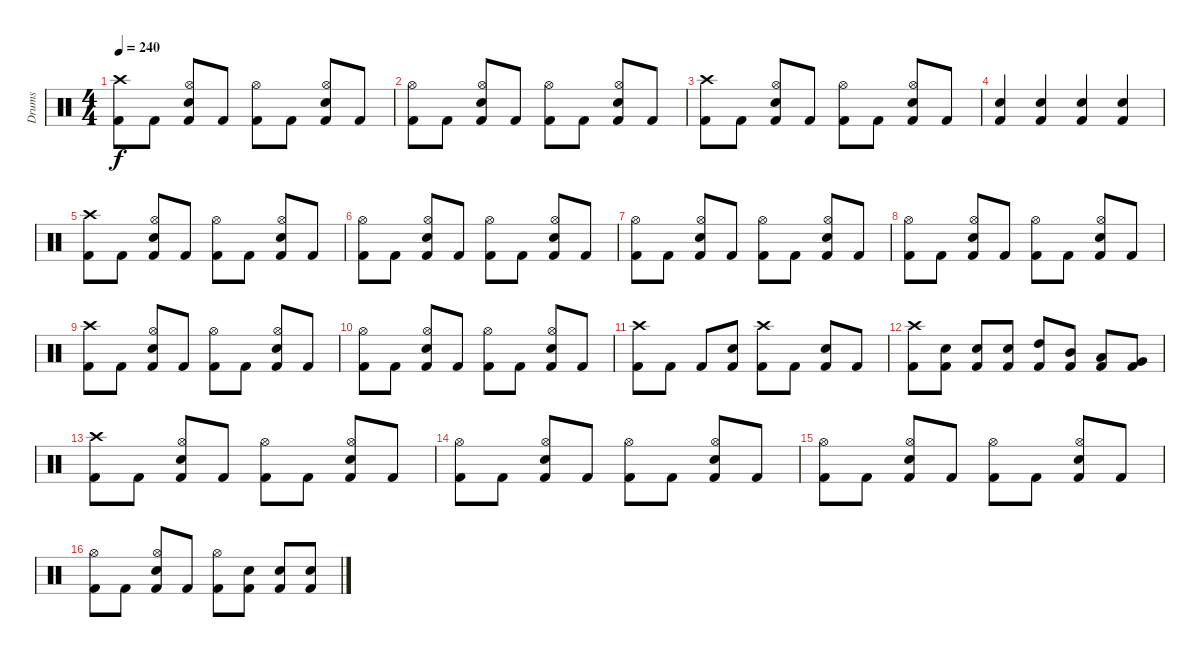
\track ("Drums" "Drums") {instrument percussion}
\staff {score}
\articulation defaults
\ts (4 4)
\tempo 240
\clef neutral
\ks c
("Crash high (hit)" "Kick (hit) 2").8{dy f} "Kick (hit) 2".8 ("Hi-Hat (open)" "Snare (hit) 2" "Kick (hit) 2").8 "Kick (hit) 2".8 ("Hi-Hat (open)" "Kick (hit) 2").8 "Kick (hit) 2".8 ("Hi-Hat (open)" "Snare (hit) 2" "Kick (hit) 2").8 "Kick (hit) 2".8 |
("Hi-Hat (open)" "Kick (hit) 2").8 "Kick (hit) 2".8 ("Hi-Hat (open)" "Snare (hit) 2" "Kick (hit) 2").8 "Kick (hit) 2".8 ("Hi-Hat (open)" "Kick (hit) 2").8 "Kick (hit) 2".8 ("Hi-Hat (open)" "Snare (hit) 2" "Kick (hit) 2").8 "Kick (hit) 2".8 |
("Crash high (hit)" "Kick (hit) 2").8 "Kick (hit) 2".8 ("Hi-Hat (open)" "Snare (hit) 2" "Kick (hit) 2").8 "Kick (hit) 2".8 ("Hi-Hat (open)" "Kick (hit) 2").8 "Kick (hit) 2".8 ("Hi-Hat (open)" "Snare (hit) 2" "Kick (hit) 2").8 "Kick (hit) 2".8 |
("Snare (hit) 2" "Kick (hit) 2").4 ("Snare (hit) 2" "Kick (hit) 2").4 ("Snare (hit) 2" "Kick (hit) 2").4 ("Snare (hit) 2" "Kick (hit) 2").4 |
("Crash high (hit)" "Kick (hit) 2").8 "Kick (hit) 2".8 ("Hi-Hat (open)" "Snare (hit) 2" "Kick (hit) 2").8 "Kick (hit) 2".8 ("Hi-Hat (open)" "Kick (hit) 2").8 "Kick (hit) 2".8 ("Hi-Hat (open)" "Snare (hit) 2" "Kick (hit) 2").8 "Kick (hit) 2".8 |
("Hi-Hat (open)" "Kick (hit) 2").8 "Kick (hit) 2".8 ("Hi-Hat (open)" "Snare (hit) 2" "Kick (hit) 2").8 "Kick (hit) 2".8 ("Hi-Hat (open)" "Kick (hit) 2").8 "Kick (hit) 2".8 ("Hi-Hat (open)" "Snare (hit) 2" "Kick (hit) 2").8 "Kick (hit) 2".8 |
("Hi-Hat (open)" "Kick (hit) 2").8 "Kick (hit) 2".8 ("Hi-Hat (open)" "Snare (hit) 2" "Kick (hit) 2").8 "Kick (hit) 2".8 ("Hi-Hat (open)" "Kick (hit) 2").8 "Kick (hit) 2".8 ("Hi-Hat (open)" "Snare (hit) 2" "Kick (hit) 2").8 "Kick (hit) 2".8 |
("Hi-Hat (open)" "Kick (hit) 2").8 "Kick (hit) 2".8 ("Hi-Hat (open)" "Snare (hit) 2" "Kick (hit) 2").8 "Kick (hit) 2".8 ("Hi-Hat (open)" "Kick (hit) 2").8 "Kick (hit) 2".8 ("Hi-Hat (open)" "Snare (hit) 2" "Kick (hit) 2").8 "Kick (hit) 2".8 |
("Crash high (hit)" "Kick (hit) 2").8 "Kick (hit) 2".8 ("Hi-Hat (open)" "Snare (hit) 2" "Kick (hit) 2").8 "Kick (hit) 2".8 ("Hi-Hat (open)" "Kick (hit) 2").8 "Kick (hit) 2".8 ("Hi-Hat (open)" "Snare (hit) 2" "Kick (hit) 2").8 "Kick (hit) 2".8 |
("Hi-Hat (open)" "Kick (hit) 2").8 "Kick (hit) 2".8 ("Hi-Hat (open)" "Snare (hit) 2" "Kick (hit) 2").8 "Kick (hit) 2".8 ("Hi-Hat (open)" "Kick (hit) 2").8 "Kick (hit) 2".8 ("Hi-Hat (open)" "Snare (hit) 2" "Kick (hit) 2").8 "Kick (hit) 2".8 |
("Crash high (hit)" "Kick (hit) 2").8 "Kick (hit) 2".8 "Kick (hit) 2".8 ("Snare (hit) 2" "Kick (hit) 2").8 ("Crash high (hit)" "Kick (hit) 2").8 "Kick (hit) 2".8 ("Snare (hit) 2" "Kick (hit) 2").8 "Kick (hit) 2".8 |
("Crash high (hit)" "Kick (hit) 2").8 ("Snare (hit) 2" "Kick (hit) 2").8 ("Snare (hit) 2" "Kick (hit) 2").8 ("Snare (hit) 2" "Kick (hit) 2").8 ("High Tom (hit)" "Kick (hit) 2").8 ("Mid Tom (hit)" "Kick (hit) 2").8 ("Low Tom (hit)" "Kick (hit) 2").8 ("Very Low Tom (hit)" "Kick (hit) 2").8 |
("Crash high (hit)" "Kick (hit) 2").8 "Kick (hit) 2".8 ("Hi-Hat (open)" "Snare (hit) 2" "Kick (hit) 2").8 "Kick (hit) 2".8 ("Hi-Hat (open)" "Kick (hit) 2").8 "Kick (hit) 2".8 ("Hi-Hat (open)" "Snare (hit) 2" "Kick (hit) 2").8 "Kick (hit) 2".8 |
("Hi-Hat (open)" "Kick (hit) 2").8 "Kick (hit) 2".8 ("Hi-Hat (open)" "Snare (hit) 2" "Kick (hit) 2").8 "Kick (hit) 2".8 ("Hi-Hat (open)" "Kick (hit) 2").8 "Kick (hit) 2".8 ("Hi-Hat (open)" "Snare (hit) 2" "Kick (hit) 2").8 "Kick (hit) 2".8 |
("Hi-Hat (open)" "Kick (hit) 2").8 "Kick (hit) 2".8 ("Hi-Hat (open)" "Snare (hit) 2" "Kick (hit) 2").8 "Kick (hit) 2".8 ("Hi-Hat (open)" "Kick (hit) 2").8 "Kick (hit) 2".8 ("Hi-Hat (open)" "Snare (hit) 2" "Kick (hit) 2").8 "Kick (hit) 2".8 |
("Hi-Hat (open)" "Kick (hit) 2").8 "Kick (hit) 2".8 ("Hi-Hat (open)" "Snare (hit) 2" "Kick (hit) 2").8 "Kick (hit) 2".8 ("Hi-Hat (open)" "Kick (hit) 2").8 ("Snare (hit) 2" "Kick (hit) 2").8 ("Snare (hit) 2" "Kick (hit) 2").8 ("Snare (hit) 2" "Kick (hit) 2").8
